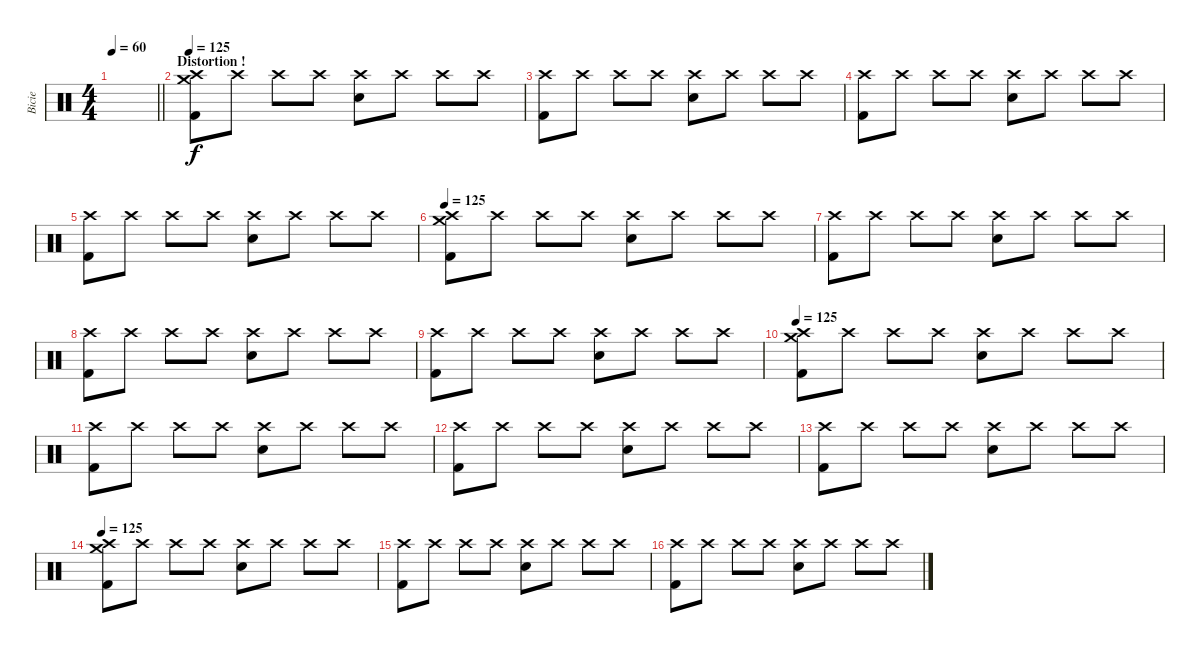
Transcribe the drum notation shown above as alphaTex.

\track ("Bicie" "Bicie") {instrument percussion}
\staff {score}
\articulation defaults
\ts (4 4)
\tempo 60
\clef neutral
\barLineRight lightlight
\ks c
|
\section ("" "Distortion !")
\tempo 125
("Crash medium (hit)" "Crash high (hit)" "Kick (hit) 2").8 "Crash high (hit)".8 "Crash high (hit)".8 "Crash high (hit)".8 ("Crash high (hit)" "Snare (hit) 2").8 "Crash high (hit)".8 "Crash high (hit)".8 "Crash high (hit)".8 |
("Crash high (hit)" "Kick (hit) 2").8 "Crash high (hit)".8 "Crash high (hit)".8 "Crash high (hit)".8 ("Crash high (hit)" "Snare (hit) 2").8 "Crash high (hit)".8 "Crash high (hit)".8 "Crash high (hit)".8 |
("Crash high (hit)" "Kick (hit) 2").8 "Crash high (hit)".8 "Crash high (hit)".8 "Crash high (hit)".8 ("Crash high (hit)" "Snare (hit) 2").8 "Crash high (hit)".8 "Crash high (hit)".8 "Crash high (hit)".8 |
("Crash high (hit)" "Kick (hit) 2").8 "Crash high (hit)".8 "Crash high (hit)".8 "Crash high (hit)".8 ("Crash high (hit)" "Snare (hit) 2").8 "Crash high (hit)".8 "Crash high (hit)".8 "Crash high (hit)".8 |
\tempo 125
("Crash medium (hit)" "Crash high (hit)" "Kick (hit) 2").8 "Crash high (hit)".8 "Crash high (hit)".8 "Crash high (hit)".8 ("Crash high (hit)" "Snare (hit) 2").8 "Crash high (hit)".8 "Crash high (hit)".8 "Crash high (hit)".8 |
("Crash high (hit)" "Kick (hit) 2").8 "Crash high (hit)".8 "Crash high (hit)".8 "Crash high (hit)".8 ("Crash high (hit)" "Snare (hit) 2").8 "Crash high (hit)".8 "Crash high (hit)".8 "Crash high (hit)".8 |
("Crash high (hit)" "Kick (hit) 2").8 "Crash high (hit)".8 "Crash high (hit)".8 "Crash high (hit)".8 ("Crash high (hit)" "Snare (hit) 2").8 "Crash high (hit)".8 "Crash high (hit)".8 "Crash high (hit)".8 |
("Crash high (hit)" "Kick (hit) 2").8 "Crash high (hit)".8 "Crash high (hit)".8 "Crash high (hit)".8 ("Crash high (hit)" "Snare (hit) 2").8 "Crash high (hit)".8 "Crash high (hit)".8 "Crash high (hit)".8 |
\tempo 125
("Crash medium (hit)" "Crash high (hit)" "Kick (hit) 2").8 "Crash high (hit)".8 "Crash high (hit)".8 "Crash high (hit)".8 ("Crash high (hit)" "Snare (hit) 2").8 "Crash high (hit)".8 "Crash high (hit)".8 "Crash high (hit)".8 |
("Crash high (hit)" "Kick (hit) 2").8 "Crash high (hit)".8 "Crash high (hit)".8 "Crash high (hit)".8 ("Crash high (hit)" "Snare (hit) 2").8 "Crash high (hit)".8 "Crash high (hit)".8 "Crash high (hit)".8 |
("Crash high (hit)" "Kick (hit) 2").8 "Crash high (hit)".8 "Crash high (hit)".8 "Crash high (hit)".8 ("Crash high (hit)" "Snare (hit) 2").8 "Crash high (hit)".8 "Crash high (hit)".8 "Crash high (hit)".8 |
("Crash high (hit)" "Kick (hit) 2").8 "Crash high (hit)".8 "Crash high (hit)".8 "Crash high (hit)".8 ("Crash high (hit)" "Snare (hit) 2").8 "Crash high (hit)".8 "Crash high (hit)".8 "Crash high (hit)".8 |
\tempo 125
("Crash medium (hit)" "Crash high (hit)" "Kick (hit) 2").8 "Crash high (hit)".8 "Crash high (hit)".8 "Crash high (hit)".8 ("Crash high (hit)" "Snare (hit) 2").8 "Crash high (hit)".8 "Crash high (hit)".8 "Crash high (hit)".8 |
("Crash high (hit)" "Kick (hit) 2").8 "Crash high (hit)".8 "Crash high (hit)".8 "Crash high (hit)".8 ("Crash high (hit)" "Snare (hit) 2").8 "Crash high (hit)".8 "Crash high (hit)".8 "Crash high (hit)".8 |
("Crash high (hit)" "Kick (hit) 2").8 "Crash high (hit)".8 "Crash high (hit)".8 "Crash high (hit)".8 ("Crash high (hit)" "Snare (hit) 2").8 "Crash high (hit)".8 "Crash high (hit)".8 "Crash high (hit)".8
